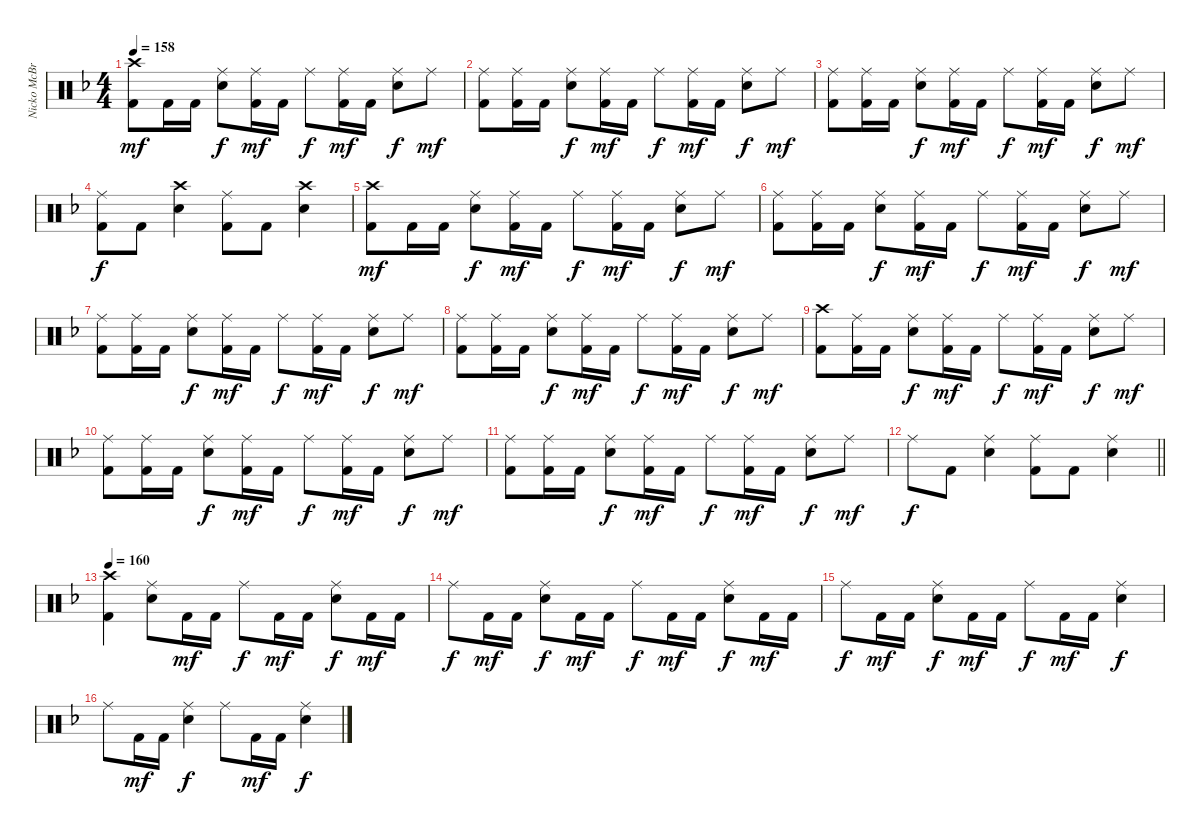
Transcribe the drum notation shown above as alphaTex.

\track ("Nicko McBrain" "Nicko McBr") {instrument percussion}
\staff {score}
\articulation defaults
\ts (4 4)
\tempo 158
\clef neutral
\ks f
("Crash high (hit)" "Kick (hit) 2").8{dy mf} "Kick (hit) 2".16 "Kick (hit) 2".16 ("Ride (middle)" "Electric Snare (hit)").8{dy f} ("Ride (middle)" "Kick (hit) 2").16{dy mf} "Kick (hit) 2".16 "Ride (middle)".8{dy f} ("Ride (middle)" "Kick (hit) 2").16{dy mf} "Kick (hit) 2".16 ("Ride (middle)" "Electric Snare (hit)").8{dy f} "Ride (middle)".8{dy mf} |
("Ride (middle)" "Kick (hit) 2").8 ("Ride (middle)" "Kick (hit) 2").16 "Kick (hit) 2".16 ("Ride (middle)" "Electric Snare (hit)").8{dy f} ("Ride (middle)" "Kick (hit) 2").16{dy mf} "Kick (hit) 2".16 "Ride (middle)".8{dy f} ("Ride (middle)" "Kick (hit) 2").16{dy mf} "Kick (hit) 2".16 ("Ride (middle)" "Electric Snare (hit)").8{dy f} "Ride (middle)".8{dy mf} |
("Ride (middle)" "Kick (hit) 2").8 ("Ride (middle)" "Kick (hit) 2").16 "Kick (hit) 2".16 ("Ride (middle)" "Electric Snare (hit)").8{dy f} ("Ride (middle)" "Kick (hit) 2").16{dy mf} "Kick (hit) 2".16 "Ride (middle)".8{dy f} ("Ride (middle)" "Kick (hit) 2").16{dy mf} "Kick (hit) 2".16 ("Ride (middle)" "Electric Snare (hit)").8{dy f} "Ride (middle)".8{dy mf} |
("Ride (middle)" "Kick (hit) 2").8{dy f} "Kick (hit) 2".8 ("Crash high (hit)" "Electric Snare (hit)").4 ("Ride (middle)" "Kick (hit) 2").8 "Kick (hit) 2".8 ("Crash high (hit)" "Electric Snare (hit)").4 |
("Crash high (hit)" "Kick (hit) 2").8{dy mf} "Kick (hit) 2".16 "Kick (hit) 2".16 ("Ride (middle)" "Electric Snare (hit)").8{dy f} ("Ride (middle)" "Kick (hit) 2").16{dy mf} "Kick (hit) 2".16 "Ride (middle)".8{dy f} ("Ride (middle)" "Kick (hit) 2").16{dy mf} "Kick (hit) 2".16 ("Ride (middle)" "Electric Snare (hit)").8{dy f} "Ride (middle)".8{dy mf} |
("Ride (middle)" "Kick (hit) 2").8 ("Ride (middle)" "Kick (hit) 2").16 "Kick (hit) 2".16 ("Ride (middle)" "Electric Snare (hit)").8{dy f} ("Ride (middle)" "Kick (hit) 2").16{dy mf} "Kick (hit) 2".16 "Ride (middle)".8{dy f} ("Ride (middle)" "Kick (hit) 2").16{dy mf} "Kick (hit) 2".16 ("Ride (middle)" "Electric Snare (hit)").8{dy f} "Ride (middle)".8{dy mf} |
("Ride (middle)" "Kick (hit) 2").8 ("Ride (middle)" "Kick (hit) 2").16 "Kick (hit) 2".16 ("Ride (middle)" "Electric Snare (hit)").8{dy f} ("Ride (middle)" "Kick (hit) 2").16{dy mf} "Kick (hit) 2".16 "Ride (middle)".8{dy f} ("Ride (middle)" "Kick (hit) 2").16{dy mf} "Kick (hit) 2".16 ("Ride (middle)" "Electric Snare (hit)").8{dy f} "Ride (middle)".8{dy mf} |
("Ride (middle)" "Kick (hit) 2").8 ("Ride (middle)" "Kick (hit) 2").16 "Kick (hit) 2".16 ("Ride (middle)" "Electric Snare (hit)").8{dy f} ("Ride (middle)" "Kick (hit) 2").16{dy mf} "Kick (hit) 2".16 "Ride (middle)".8{dy f} ("Ride (middle)" "Kick (hit) 2").16{dy mf} "Kick (hit) 2".16 ("Ride (middle)" "Electric Snare (hit)").8{dy f} "Ride (middle)".8{dy mf} |
("Crash high (hit)" "Kick (hit) 2").8 ("Ride (middle)" "Kick (hit) 2").16 "Kick (hit) 2".16 ("Ride (middle)" "Electric Snare (hit)").8{dy f} ("Ride (middle)" "Kick (hit) 2").16{dy mf} "Kick (hit) 2".16 "Ride (middle)".8{dy f} ("Ride (middle)" "Kick (hit) 2").16{dy mf} "Kick (hit) 2".16 ("Ride (middle)" "Electric Snare (hit)").8{dy f} "Ride (middle)".8{dy mf} |
("Ride (middle)" "Kick (hit) 2").8 ("Ride (middle)" "Kick (hit) 2").16 "Kick (hit) 2".16 ("Ride (middle)" "Electric Snare (hit)").8{dy f} ("Ride (middle)" "Kick (hit) 2").16{dy mf} "Kick (hit) 2".16 "Ride (middle)".8{dy f} ("Ride (middle)" "Kick (hit) 2").16{dy mf} "Kick (hit) 2".16 ("Ride (middle)" "Electric Snare (hit)").8{dy f} "Ride (middle)".8{dy mf} |
("Ride (middle)" "Kick (hit) 2").8 ("Ride (middle)" "Kick (hit) 2").16 "Kick (hit) 2".16 ("Ride (middle)" "Electric Snare (hit)").8{dy f} ("Ride (middle)" "Kick (hit) 2").16{dy mf} "Kick (hit) 2".16 "Ride (middle)".8{dy f} ("Ride (middle)" "Kick (hit) 2").16{dy mf} "Kick (hit) 2".16 ("Ride (middle)" "Electric Snare (hit)").8{dy f} "Ride (middle)".8{dy mf} |
\barLineRight lightlight "Ride (middle)".8{dy f} "Kick (hit) 2".8
("Ride (middle)" "Electric Snare (hit)").4 ("Ride (middle)" "Kick (hit) 2").8 "Kick (hit) 2".8 ("Ride (middle)" "Electric Snare (hit)").4 |
\tempo 160
("Crash high (hit)" "Kick (hit) 2").4 ("Ride (middle)" "Electric Snare (hit)").8 "Kick (hit) 2".16{dy mf} "Kick (hit) 2".16 "Ride (middle)".8{dy f} "Kick (hit) 2".16{dy mf} "Kick (hit) 2".16 ("Ride (middle)" "Electric Snare (hit)").8{dy f} "Kick (hit) 2".16{dy mf} "Kick (hit) 2".16 |
"Ride (middle)".8{dy f} "Kick (hit) 2".16{dy mf} "Kick (hit) 2".16 ("Ride (middle)" "Electric Snare (hit)").8{dy f} "Kick (hit) 2".16{dy mf} "Kick (hit) 2".16 "Ride (middle)".8{dy f} "Kick (hit) 2".16{dy mf} "Kick (hit) 2".16 ("Ride (middle)" "Electric Snare (hit)").8{dy f} "Kick (hit) 2".16{dy mf} "Kick (hit) 2".16 |
"Ride (middle)".8{dy f} "Kick (hit) 2".16{dy mf} "Kick (hit) 2".16 ("Ride (middle)" "Electric Snare (hit)").8{dy f} "Kick (hit) 2".16{dy mf} "Kick (hit) 2".16 "Ride (middle)".8{dy f} "Kick (hit) 2".16{dy mf} "Kick (hit) 2".16 ("Ride (middle)" "Electric Snare (hit)").4{dy f} |
"Ride (middle)".8 "Kick (hit) 2".16{dy mf} "Kick (hit) 2".16 ("Ride (middle)" "Electric Snare (hit)").4{dy f} "Ride (middle)".8 "Kick (hit) 2".16{dy mf} "Kick (hit) 2".16 ("Ride (middle)" "Electric Snare (hit)").4{dy f}
